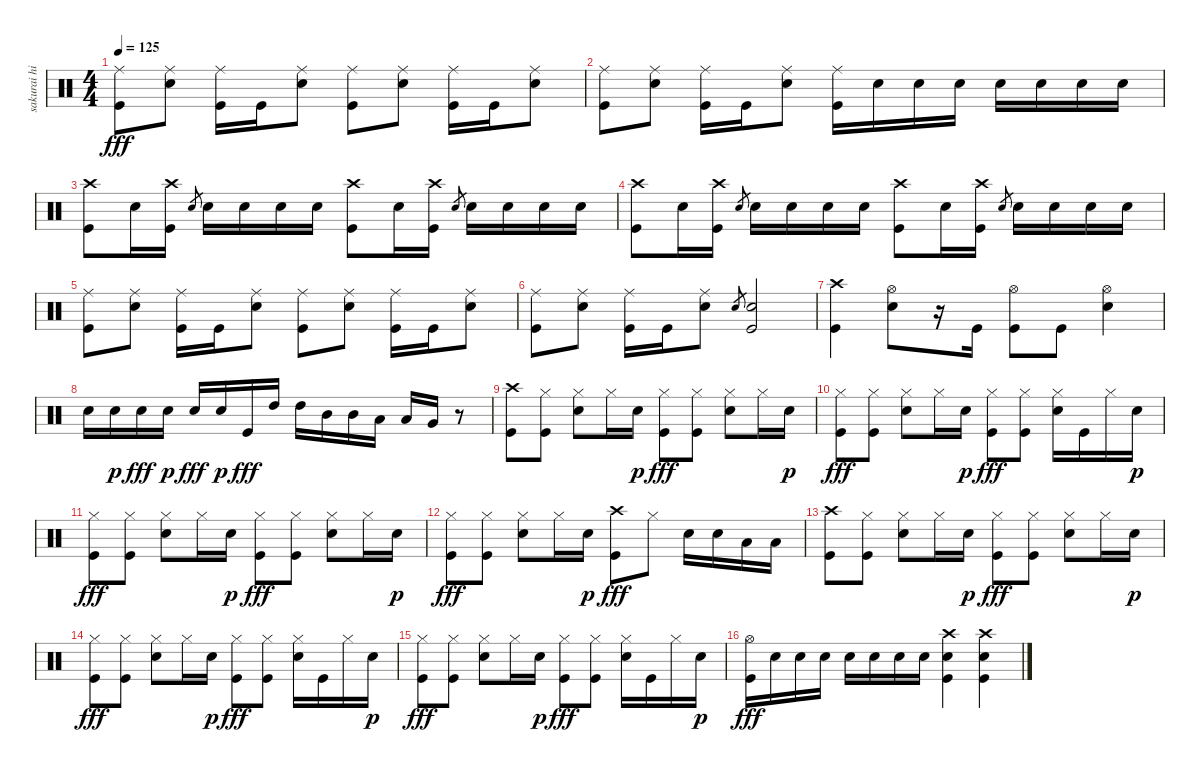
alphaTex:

\track ("sakurai hiroshi" "sakurai hi") {instrument percussion}
\staff {score}
\articulation defaults
\ts (4 4)
\tempo 125
\clef neutral
\ks c
("Kick (hit)" "Ride (middle)").8{dy fff} ("Ride (middle)" "Snare (hit) 2").8 ("Ride (middle)" "Kick (hit)").16 "Kick (hit)".16 ("Ride (middle)" "Snare (hit) 2").8 ("Ride (middle)" "Kick (hit)").8 ("Ride (middle)" "Snare (hit) 2").8 ("Ride (middle)" "Kick (hit)").16 "Kick (hit)".16 ("Ride (middle)" "Snare (hit) 2").8 |
("Kick (hit)" "Ride (middle)").8 ("Ride (middle)" "Snare (hit) 2").8 ("Ride (middle)" "Kick (hit)").16 "Kick (hit)".16 ("Ride (middle)" "Snare (hit) 2").8 ("Ride (middle)" "Kick (hit)").16 "Snare (hit) 2".16 "Snare (hit) 2".16 "Snare (hit) 2".16 "Snare (hit) 2".16 "Snare (hit) 2".16 "Snare (hit) 2".16 "Snare (hit) 2".16 |
("Kick (hit)" "Crash high (hit)").8 "Snare (hit) 2".16 ("Kick (hit)" "Crash high (hit)").16 "Snare (hit) 2".8{gr} "Snare (hit) 2".16 "Snare (hit) 2".16 "Snare (hit) 2".16 "Snare (hit) 2".16 ("Kick (hit)" "Crash high (hit)").8 "Snare (hit) 2".16 ("Kick (hit)" "Crash high (hit)").16 "Snare (hit) 2".8{gr} "Snare (hit) 2".16 "Snare (hit) 2".16 "Snare (hit) 2".16 "Snare (hit) 2".16 |
("Kick (hit)" "Crash high (hit)").8 "Snare (hit) 2".16 ("Kick (hit)" "Crash high (hit)").16 "Snare (hit) 2".8{gr} "Snare (hit) 2".16 "Snare (hit) 2".16 "Snare (hit) 2".16 "Snare (hit) 2".16 ("Kick (hit)" "Crash high (hit)").8 "Snare (hit) 2".16 ("Kick (hit)" "Crash high (hit)").16 "Snare (hit) 2".8{gr} "Snare (hit) 2".16 "Snare (hit) 2".16 "Snare (hit) 2".16 "Snare (hit) 2".16 |
("Kick (hit)" "Ride (middle)").8 ("Ride (middle)" "Snare (hit) 2").8 ("Ride (middle)" "Kick (hit)").16 "Kick (hit)".16 ("Ride (middle)" "Snare (hit) 2").8 ("Ride (middle)" "Kick (hit)").8 ("Ride (middle)" "Snare (hit) 2").8 ("Ride (middle)" "Kick (hit)").16 "Kick (hit)".16 ("Ride (middle)" "Snare (hit) 2").8 |
("Kick (hit)" "Ride (middle)").8 ("Ride (middle)" "Snare (hit) 2").8 ("Ride (middle)" "Kick (hit)").16 "Kick (hit)".16 ("Ride (middle)" "Snare (hit) 2").8 "Snare (hit) 2".8{gr} ("Snare (hit) 2" "Kick (hit)").2 |
("Kick (hit)" "Crash high (hit)").4 ("Snare (hit) 2" "Hi-Hat (open)").8 r.16 "Kick (hit)".16 ("Kick (hit)" "Hi-Hat (open)").8 "Kick (hit)".8 ("Snare (hit) 2" "Hi-Hat (open)").4 |
"Snare (hit) 2".16 "Snare (hit) 2".16{dy p} "Snare (hit) 2".16{dy fff} "Snare (hit) 2".16{dy p} "Snare (hit) 2".16{dy fff} "Snare (hit) 2".16{dy p} "Kick (hit)".16{dy fff} "High Tom (hit)".16 "High Tom (hit)".16 "Mid Tom (hit)".16 "Mid Tom (hit)".16 "Low Tom (hit)".16 "Low Tom (hit)".16 "Very Low Tom (hit)".16 r.8 |
("Kick (hit)" "Crash high (hit)").8 ("Kick (hit)" "Hi-Hat (closed)").8 ("Hi-Hat (closed)" "Snare (hit) 2").8 "Hi-Hat (closed)".16 "Snare (hit) 2".16{dy p} ("Kick (hit)" "Hi-Hat (closed)").8{dy fff} ("Hi-Hat (closed)" "Kick (hit)").8 ("Hi-Hat (closed)" "Snare (hit) 2").8 "Hi-Hat (closed)".16 "Snare (hit) 2".16{dy p} |
("Kick (hit)" "Hi-Hat (closed)").8{dy fff} ("Kick (hit)" "Hi-Hat (closed)").8 ("Hi-Hat (closed)" "Snare (hit) 2").8 "Hi-Hat (closed)".16 "Snare (hit) 2".16{dy p} ("Kick (hit)" "Hi-Hat (closed)").8{dy fff} ("Hi-Hat (closed)" "Kick (hit)").8 ("Hi-Hat (closed)" "Snare (hit) 2").16 "Kick (hit)".16 "Hi-Hat (closed)".16 "Snare (hit) 2".16{dy p} |
("Kick (hit)" "Hi-Hat (closed)").8{dy fff} ("Kick (hit)" "Hi-Hat (closed)").8 ("Hi-Hat (closed)" "Snare (hit) 2").8 "Hi-Hat (closed)".16 "Snare (hit) 2".16{dy p} ("Kick (hit)" "Hi-Hat (closed)").8{dy fff} ("Kick (hit)" "Hi-Hat (closed)").8 ("Hi-Hat (closed)" "Snare (hit) 2").8 "Hi-Hat (closed)".16 "Snare (hit) 2".16{dy p} |
("Kick (hit)" "Hi-Hat (closed)").8{dy fff} ("Kick (hit)" "Hi-Hat (closed)").8 ("Hi-Hat (closed)" "Snare (hit) 2").8 "Hi-Hat (closed)".16 "Snare (hit) 2".16{dy p} ("Kick (hit)" "Crash high (hit)").8{dy fff} "Hi-Hat (closed)".8 "Snare (hit) 2".16 "Snare (hit) 2".16 "Low Tom (hit)".16 "Low Tom (hit)".16 |
("Kick (hit)" "Crash high (hit)").8 ("Kick (hit)" "Hi-Hat (closed)").8 ("Hi-Hat (closed)" "Snare (hit) 2").8 "Hi-Hat (closed)".16 "Snare (hit) 2".16{dy p} ("Kick (hit)" "Hi-Hat (closed)").8{dy fff} ("Hi-Hat (closed)" "Kick (hit)").8 ("Hi-Hat (closed)" "Snare (hit) 2").8 "Hi-Hat (closed)".16 "Snare (hit) 2".16{dy p} |
("Kick (hit)" "Hi-Hat (closed)").8{dy fff} ("Kick (hit)" "Hi-Hat (closed)").8 ("Hi-Hat (closed)" "Snare (hit) 2").8 "Hi-Hat (closed)".16 "Snare (hit) 2".16{dy p} ("Kick (hit)" "Hi-Hat (closed)").8{dy fff} ("Hi-Hat (closed)" "Kick (hit)").8 ("Hi-Hat (closed)" "Snare (hit) 2").16 "Kick (hit)".16 "Hi-Hat (closed)".16 "Snare (hit) 2".16{dy p} |
("Kick (hit)" "Hi-Hat (closed)").8{dy fff} ("Kick (hit)" "Hi-Hat (closed)").8 ("Hi-Hat (closed)" "Snare (hit) 2").8 "Hi-Hat (closed)".16 "Snare (hit) 2".16{dy p} ("Kick (hit)" "Hi-Hat (closed)").8{dy fff} ("Hi-Hat (closed)" "Kick (hit)").8 ("Hi-Hat (closed)" "Snare (hit) 2").16 "Kick (hit)".16 "Hi-Hat (closed)".16 "Snare (hit) 2".16{dy p} |
("Hi-Hat (open)" "Kick (hit)").16{dy fff} "Snare (hit) 2".16 "Snare (hit) 2".16 "Snare (hit) 2".16 "Snare (hit) 2".16 "Snare (hit) 2".16 "Snare (hit) 2".16 "Snare (hit) 2".16 ("Crash high (hit)" "Snare (hit) 2" "Kick (hit)").4 ("Crash high (hit)" "Kick (hit)" "Snare (hit) 2").4
